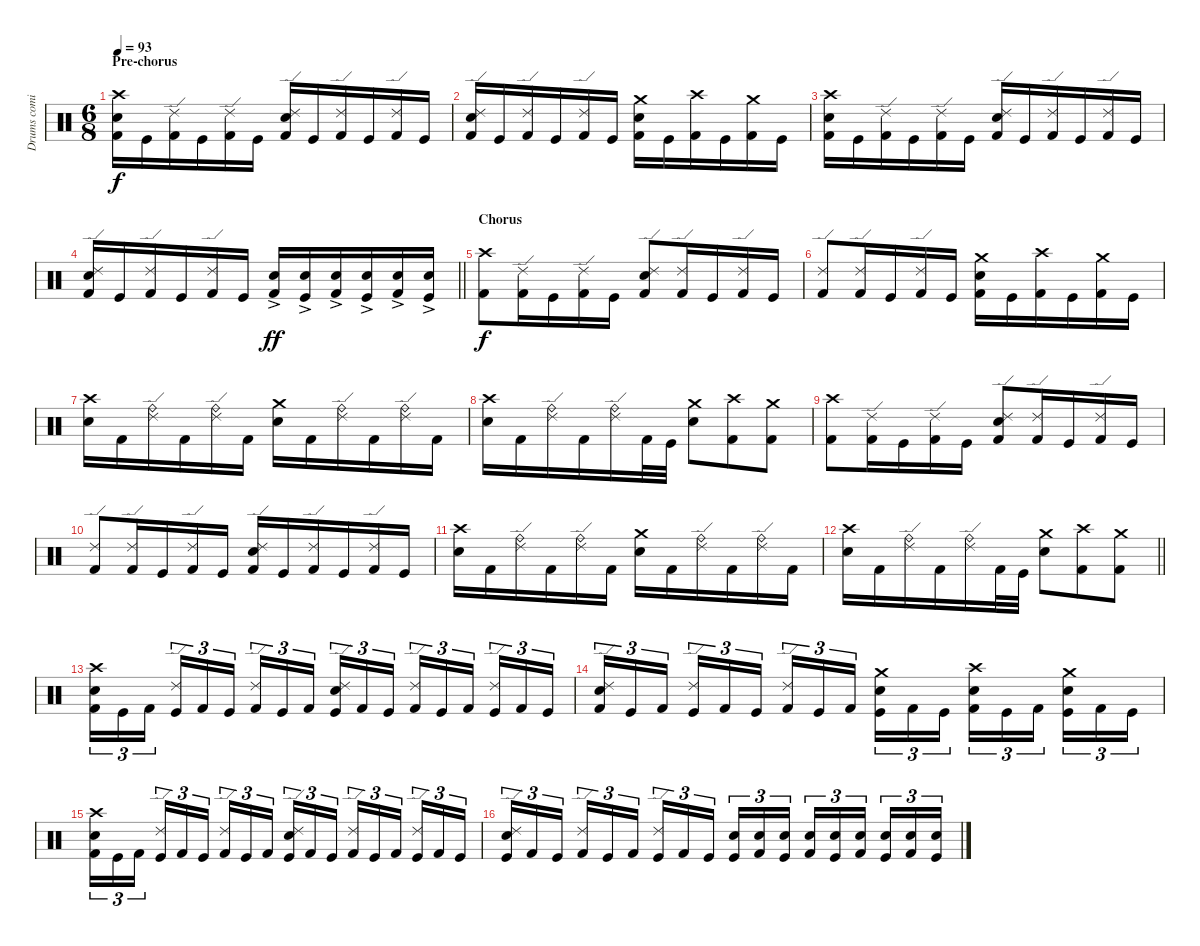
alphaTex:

\track ("Drums coming soon" "Drums comi") {instrument percussion}
\staff {score}
\articulation defaults
\ts (6 8)
\section ("" "Pre-chorus")
\tempo 93
\clef neutral
\ks c
("Crash high (hit)" "Snare (hit) 2" "Kick (hit) 2").16{dy f} "Kick (hit)".16 ("Ride (edge) 2" "Kick (hit) 2").16 "Kick (hit)".16 ("Ride (edge) 2" "Kick (hit) 2").16 "Kick (hit)".16 ("Ride (edge) 2" "Snare (hit) 2" "Kick (hit) 2").16 "Kick (hit)".16 ("Ride (edge) 2" "Kick (hit) 2").16 "Kick (hit)".16 ("Ride (edge) 2" "Kick (hit) 2").16 "Kick (hit)".16 |
("Ride (edge) 2" "Snare (hit) 2" "Kick (hit) 2").16 "Kick (hit)".16 ("Ride (edge) 2" "Kick (hit) 2").16 "Kick (hit)".16 ("Ride (edge) 2" "Kick (hit) 2").16 "Kick (hit)".16 ("Crash medium (hit)" "Snare (hit) 2" "Kick (hit) 2").16 "Kick (hit)".16 ("Crash high (hit)" "Kick (hit) 2").16 "Kick (hit)".16 ("Crash medium (hit)" "Kick (hit) 2").16 "Kick (hit)".16 |
("Crash high (hit)" "Snare (hit) 2" "Kick (hit) 2").16 "Kick (hit)".16 ("Ride (edge) 2" "Kick (hit) 2").16 "Kick (hit)".16 ("Ride (edge) 2" "Kick (hit) 2").16 "Kick (hit)".16 ("Ride (edge) 2" "Snare (hit) 2" "Kick (hit) 2").16 "Kick (hit)".16 ("Ride (edge) 2" "Kick (hit) 2").16 "Kick (hit)".16 ("Ride (edge) 2" "Kick (hit) 2").16 "Kick (hit)".16 |
\barLineRight lightlight
("Ride (edge) 2" "Snare (hit) 2" "Kick (hit) 2").16 "Kick (hit)".16 ("Ride (edge) 2" "Kick (hit) 2").16 "Kick (hit)".16 ("Ride (edge) 2" "Kick (hit) 2").16 "Kick (hit)".16 ("Snare (hit) 2"{ac} "Kick (hit) 2").16{dy ff} ("Snare (hit) 2"{ac} "Kick (hit)").16 ("Snare (hit) 2"{ac} "Kick (hit) 2").16 ("Snare (hit) 2"{ac} "Kick (hit)").16 ("Snare (hit) 2"{ac} "Kick (hit) 2").16 ("Snare (hit) 2"{ac} "Kick (hit)").16 |
\section ("" "Chorus")
("Crash high (hit)" "Kick (hit) 2").8{dy f} ("Ride (edge) 2" "Kick (hit) 2").16 "Kick (hit)".16 ("Ride (edge) 2" "Kick (hit) 2").16 "Kick (hit)".16 ("Ride (edge) 2" "Snare (hit) 2" "Kick (hit) 2").8 ("Ride (edge) 2" "Kick (hit) 2").16 "Kick (hit)".16 ("Ride (edge) 2" "Kick (hit) 2").16 "Kick (hit)".16 |
("Ride (edge) 2" "Kick (hit) 2").8 ("Ride (edge) 2" "Kick (hit) 2").16 "Kick (hit)".16 ("Ride (edge) 2" "Kick (hit) 2").16 "Kick (hit)".16 ("Crash medium (hit)" "Snare (hit) 2" "Kick (hit) 2").16 "Kick (hit)".16 ("Crash high (hit)" "Kick (hit) 2").16 "Kick (hit)".16 ("Crash medium (hit)" "Kick (hit) 2").16 "Kick (hit)".16 |
("Crash high (hit)" "Snare (hit) 2").16 "Kick (hit) 2".16 ("Ride (edge) 2" "Ride (bell)").16 "Kick (hit) 2".16 ("Ride (edge) 2" "Ride (bell)").16 "Kick (hit) 2".16 ("Crash medium (hit)" "Snare (hit) 2").16 "Kick (hit) 2".16 ("Ride (edge) 2" "Ride (bell)").16 "Kick (hit) 2".16 ("Ride (edge) 2" "Ride (bell)").16 "Kick (hit) 2".16 |
("Crash high (hit)" "Snare (hit) 2").16 "Kick (hit) 2".16 ("Ride (edge) 2" "Ride (bell)").16 "Kick (hit) 2".16 ("Ride (edge) 2" "Ride (bell)").16 "Kick (hit) 2".32 "Kick (hit)".32 ("Crash medium (hit)" "Snare (hit) 2").8 ("Crash high (hit)" "Kick (hit) 2").8 ("Crash medium (hit)" "Kick (hit) 2").8 |
("Crash high (hit)" "Kick (hit) 2").8 ("Ride (edge) 2" "Kick (hit) 2").16 "Kick (hit)".16 ("Ride (edge) 2" "Kick (hit) 2").16 "Kick (hit)".16 ("Ride (edge) 2" "Snare (hit) 2" "Kick (hit) 2").8 ("Ride (edge) 2" "Kick (hit) 2").16 "Kick (hit)".16 ("Ride (edge) 2" "Kick (hit) 2").16 "Kick (hit)".16 |
("Ride (edge) 2" "Kick (hit) 2").8 ("Ride (edge) 2" "Kick (hit) 2").16 "Kick (hit)".16 ("Ride (edge) 2" "Kick (hit) 2").16 "Kick (hit)".16 ("Ride (edge) 2" "Snare (hit) 2" "Kick (hit) 2").16 "Kick (hit)".16 ("Ride (edge) 2" "Kick (hit) 2").16 "Kick (hit)".16 ("Ride (edge) 2" "Kick (hit) 2").16 "Kick (hit)".16 |
("Crash high (hit)" "Snare (hit) 2").16 "Kick (hit) 2".16 ("Ride (edge) 2" "Ride (bell)").16 "Kick (hit) 2".16 ("Ride (edge) 2" "Ride (bell)").16 "Kick (hit) 2".16 ("Crash medium (hit)" "Snare (hit) 2").16 "Kick (hit) 2".16 ("Ride (edge) 2" "Ride (bell)").16 "Kick (hit) 2".16 ("Ride (edge) 2" "Ride (bell)").16 "Kick (hit) 2".16 |
\barLineRight lightlight
("Crash high (hit)" "Snare (hit) 2").16 "Kick (hit) 2".16 ("Ride (edge) 2" "Ride (bell)").16 "Kick (hit) 2".16 ("Ride (edge) 2" "Ride (bell)").16 "Kick (hit) 2".32 "Kick (hit)".32 ("Crash medium (hit)" "Snare (hit) 2").8 ("Crash high (hit)" "Kick (hit) 2").8 ("Crash medium (hit)" "Kick (hit) 2").8 |
\section ("" "")
("Crash high (hit)" "Snare (hit) 2" "Kick (hit) 2").16{tu (3 2)} "Kick (hit)".16{tu (3 2)} "Kick (hit) 2".16{tu (3 2) beam splitsecondary} ("Ride (edge) 2" "Kick (hit)").16{tu (3 2)} "Kick (hit) 2".16{tu (3 2)} "Kick (hit)".16{tu (3 2) beam splitsecondary} ("Ride (edge) 2" "Kick (hit) 2").16{tu (3 2)} "Kick (hit)".16{tu (3 2)} "Kick (hit) 2".16{tu (3 2)} ("Ride (edge) 2" "Snare (hit) 2" "Kick (hit)").16{tu (3 2)} "Kick (hit) 2".16{tu (3 2)} "Kick (hit)".16{tu (3 2) beam splitsecondary} ("Ride (edge) 2" "Kick (hit) 2").16{tu (3 2)} "Kick (hit)".16{tu (3 2)} "Kick (hit) 2".16{tu (3 2) beam splitsecondary} ("Ride (edge) 2" "Kick (hit)").16{tu (3 2)} "Kick (hit) 2".16{tu (3 2)} "Kick (hit)".16{tu (3 2)} |
("Ride (edge) 2" "Snare (hit) 2" "Kick (hit) 2").16{tu (3 2)} "Kick (hit)".16{tu (3 2)} "Kick (hit) 2".16{tu (3 2) beam splitsecondary} ("Ride (edge) 2" "Kick (hit)").16{tu (3 2)} "Kick (hit) 2".16{tu (3 2)} "Kick (hit)".16{tu (3 2) beam splitsecondary} ("Ride (edge) 2" "Kick (hit) 2").16{tu (3 2)} "Kick (hit)".16{tu (3 2)} "Kick (hit) 2".16{tu (3 2)} ("Crash medium (hit)" "Snare (hit) 2" "Kick (hit)").16{tu (3 2)} "Kick (hit) 2".16{tu (3 2)} "Kick (hit)".16{tu (3 2) beam splitsecondary} ("Crash high (hit)" "Snare (hit) 2" "Kick (hit) 2").16{tu (3 2)} "Kick (hit)".16{tu (3 2)} "Kick (hit) 2".16{tu (3 2) beam splitsecondary} ("Crash medium (hit)" "Snare (hit) 2" "Kick (hit)").16{tu (3 2)} "Kick (hit) 2".16{tu (3 2)} "Kick (hit)".16{tu (3 2)} |
("Crash high (hit)" "Snare (hit) 2" "Kick (hit) 2").16{tu (3 2)} "Kick (hit)".16{tu (3 2)} "Kick (hit) 2".16{tu (3 2) beam splitsecondary} ("Ride (edge) 2" "Kick (hit)").16{tu (3 2)} "Kick (hit) 2".16{tu (3 2)} "Kick (hit)".16{tu (3 2) beam splitsecondary} ("Ride (edge) 2" "Kick (hit) 2").16{tu (3 2)} "Kick (hit)".16{tu (3 2)} "Kick (hit) 2".16{tu (3 2)} ("Ride (edge) 2" "Snare (hit) 2" "Kick (hit)").16{tu (3 2)} "Kick (hit) 2".16{tu (3 2)} "Kick (hit)".16{tu (3 2) beam splitsecondary} ("Ride (edge) 2" "Kick (hit) 2").16{tu (3 2)} "Kick (hit)".16{tu (3 2)} "Kick (hit) 2".16{tu (3 2) beam splitsecondary} ("Ride (edge) 2" "Kick (hit)").16{tu (3 2)} "Kick (hit) 2".16{tu (3 2)} "Kick (hit)".16{tu (3 2)} |
("Ride (edge) 2" "Snare (hit) 2" "Kick (hit)").16{tu (3 2)} "Kick (hit) 2".16{tu (3 2)} "Kick (hit)".16{tu (3 2) beam splitsecondary} ("Ride (edge) 2" "Kick (hit) 2").16{tu (3 2)} "Kick (hit)".16{tu (3 2)} "Kick (hit) 2".16{tu (3 2) beam splitsecondary} ("Ride (edge) 2" "Kick (hit)").16{tu (3 2)} "Kick (hit) 2".16{tu (3 2)} "Kick (hit)".16{tu (3 2)} ("Snare (hit) 2" "Kick (hit)").16{tu (3 2)} ("Snare (hit) 2" "Kick (hit) 2").16{tu (3 2)} ("Snare (hit) 2" "Kick (hit)").16{tu (3 2) beam splitsecondary} ("Snare (hit) 2" "Kick (hit) 2").16{tu (3 2)} ("Snare (hit) 2" "Kick (hit)").16{tu (3 2)} ("Snare (hit) 2" "Kick (hit) 2").16{tu (3 2) beam splitsecondary} ("Snare (hit) 2" "Kick (hit)").16{tu (3 2)} ("Snare (hit) 2" "Kick (hit) 2").16{tu (3 2)} ("Snare (hit) 2" "Kick (hit)").16{tu (3 2)}
